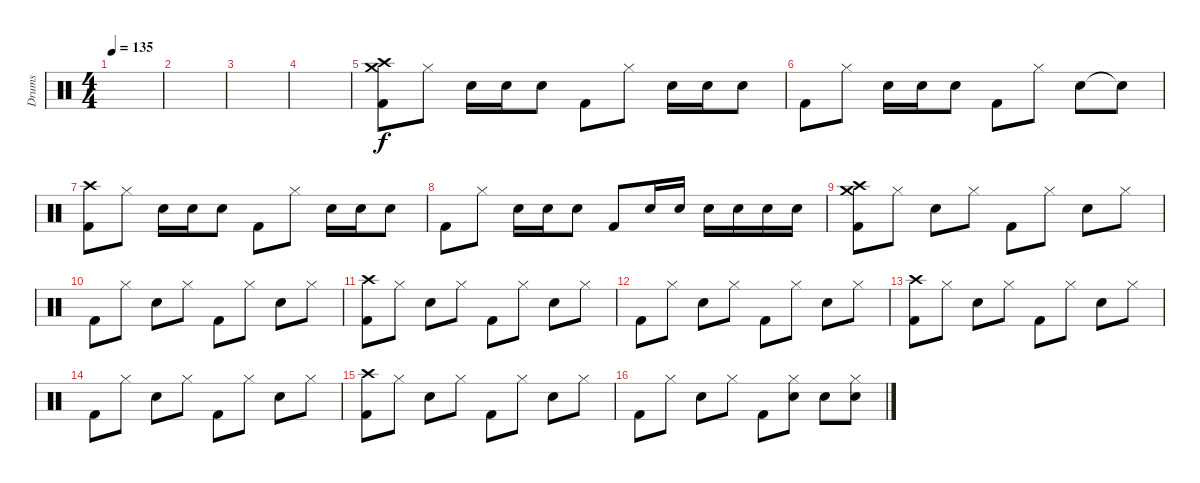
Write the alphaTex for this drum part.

\track ("Drums" "Drums") {instrument percussion}
\staff {score}
\articulation defaults
\ts (4 4)
\tempo 135
\clef neutral
\ks c
|
|
|
|
("Crash medium (hit)" "Crash high (hit)" "Kick (hit) 2").8 "Hi-Hat (closed)".8 "Snare (hit) 2".16 "Snare (hit) 2".16 "Snare (hit) 2".8 "Kick (hit) 2".8 "Hi-Hat (closed)".8 "Snare (hit) 2".16 "Snare (hit) 2".16 "Snare (hit) 2".8 |
"Kick (hit) 2".8 "Hi-Hat (closed)".8 "Snare (hit) 2".16 "Snare (hit) 2".16 "Snare (hit) 2".8 "Kick (hit) 2".8 "Hi-Hat (closed)".8 "Snare (hit) 2".8 "Snare (hit)"{t}.8 |
("Crash high (hit)" "Kick (hit) 2").8 "Hi-Hat (closed)".8 "Snare (hit) 2".16 "Snare (hit) 2".16 "Snare (hit) 2".8 "Kick (hit) 2".8 "Hi-Hat (closed)".8 "Snare (hit) 2".16 "Snare (hit) 2".16 "Snare (hit) 2".8 |
"Kick (hit) 2".8 "Hi-Hat (closed)".8 "Snare (hit) 2".16 "Snare (hit) 2".16 "Snare (hit) 2".8 "Kick (hit) 2".8 "Snare (hit) 2".16 "Snare (hit) 2".16 "Snare (hit) 2".16 "Snare (hit) 2".16 "Snare (hit) 2".16 "Snare (hit) 2".16 |
("Crash medium (hit)" "Crash high (hit)" "Kick (hit) 2").8 "Hi-Hat (closed)".8 "Snare (hit) 2".8 "Hi-Hat (closed)".8 "Kick (hit) 2".8 "Hi-Hat (closed)".8 "Snare (hit) 2".8 "Hi-Hat (closed)".8 |
"Kick (hit) 2".8 "Hi-Hat (closed)".8 "Snare (hit) 2".8 "Hi-Hat (closed)".8 "Kick (hit) 2".8 "Hi-Hat (closed)".8 "Snare (hit) 2".8 "Hi-Hat (closed)".8 |
("Crash high (hit)" "Kick (hit) 2").8 "Hi-Hat (closed)".8 "Snare (hit) 2".8 "Hi-Hat (closed)".8 "Kick (hit) 2".8 "Hi-Hat (closed)".8 "Snare (hit) 2".8 "Hi-Hat (closed)".8 |
"Kick (hit) 2".8 "Hi-Hat (closed)".8 "Snare (hit) 2".8 "Hi-Hat (closed)".8 "Kick (hit) 2".8 "Hi-Hat (closed)".8 "Snare (hit) 2".8 "Hi-Hat (closed)".8 |
("Crash high (hit)" "Kick (hit) 2").8 "Hi-Hat (closed)".8 "Snare (hit) 2".8 "Hi-Hat (closed)".8 "Kick (hit) 2".8 "Hi-Hat (closed)".8 "Snare (hit) 2".8 "Hi-Hat (closed)".8 |
"Kick (hit) 2".8 "Hi-Hat (closed)".8 "Snare (hit) 2".8 "Hi-Hat (closed)".8 "Kick (hit) 2".8 "Hi-Hat (closed)".8 "Snare (hit) 2".8 "Hi-Hat (closed)".8 |
("Crash high (hit)" "Kick (hit) 2").8 "Hi-Hat (closed)".8 "Snare (hit) 2".8 "Hi-Hat (closed)".8 "Kick (hit) 2".8 "Hi-Hat (closed)".8 "Snare (hit) 2".8 "Hi-Hat (closed)".8 |
"Kick (hit) 2".8 "Hi-Hat (closed)".8 "Snare (hit) 2".8 "Hi-Hat (closed)".8 "Kick (hit) 2".8 ("Hi-Hat (closed)" "Snare (hit) 2").8 "Snare (hit) 2".8 ("Hi-Hat (closed)" "Snare (hit) 2").8
